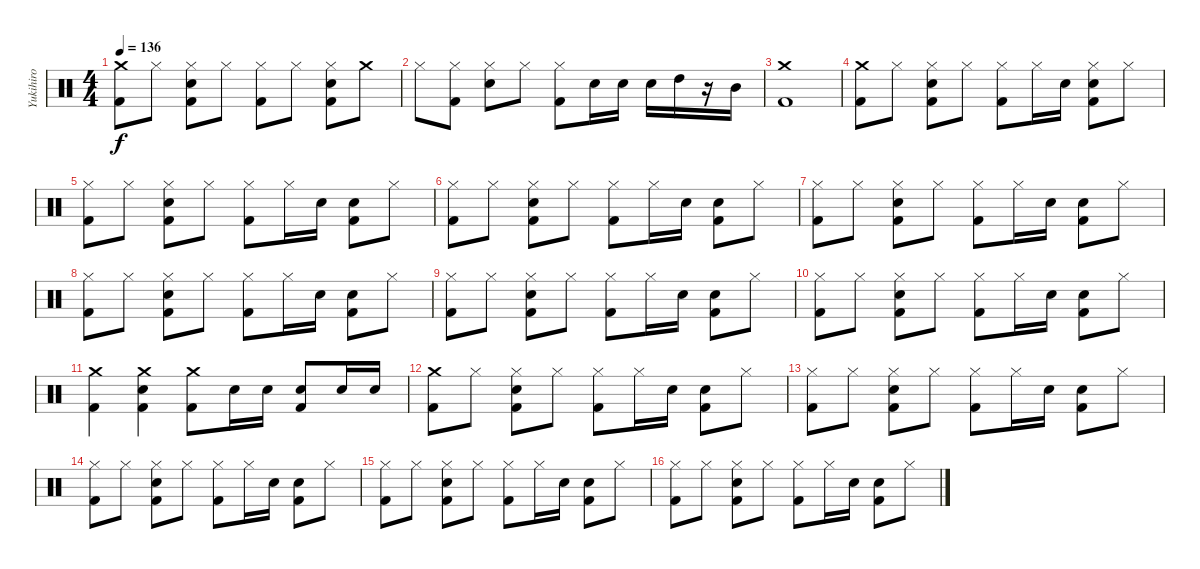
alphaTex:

\track ("Yukihiro" "Yukihiro") {instrument percussion}
\staff {score}
\articulation defaults
\ts (4 4)
\tempo 136
\clef neutral
\ks c
("Crash medium (hit)" "Kick (hit) 2").8{dy f} "Hi-Hat (closed)".8 ("Hi-Hat (closed)" "Snare (hit) 2" "Kick (hit) 2").8 "Hi-Hat (closed)".8 ("Hi-Hat (closed)" "Kick (hit) 2").8 "Hi-Hat (closed)".8 ("Hi-Hat (closed)" "Snare (hit) 2" "Kick (hit) 2").8 "Crash medium (hit)".8 |
"Hi-Hat (closed)".8 ("Hi-Hat (closed)" "Kick (hit) 2").8 ("Hi-Hat (closed)" "Snare (hit) 2").8 "Hi-Hat (closed)".8 ("Hi-Hat (closed)" "Kick (hit) 2").8 "Snare (hit) 2".16 "Snare (hit) 2".16 "Snare (hit) 2".16 "High Tom (hit)".16 r.16 "Mid Tom (hit)".16 |
("Crash medium (hit)" "Kick (hit) 2").1 |
("Crash medium (hit)" "Kick (hit) 2").8 "Hi-Hat (closed)".8 ("Hi-Hat (closed)" "Snare (hit) 2" "Kick (hit) 2").8 "Hi-Hat (closed)".8 ("Hi-Hat (closed)" "Kick (hit) 2").8 "Hi-Hat (closed)".16 "Snare (hit) 2".16 ("Hi-Hat (closed)" "Snare (hit) 2" "Kick (hit) 2").8 "Hi-Hat (closed)".8 |
("Hi-Hat (closed)" "Kick (hit) 2").8 "Hi-Hat (closed)".8 ("Hi-Hat (closed)" "Snare (hit) 2" "Kick (hit) 2").8 "Hi-Hat (closed)".8 ("Hi-Hat (closed)" "Kick (hit) 2").8 "Hi-Hat (closed)".16 "Snare (hit) 2".16 ("Snare (hit) 2" "Kick (hit) 2").8 "Hi-Hat (closed)".8 |
("Hi-Hat (closed)" "Kick (hit) 2").8 "Hi-Hat (closed)".8 ("Hi-Hat (closed)" "Snare (hit) 2" "Kick (hit) 2").8 "Hi-Hat (closed)".8 ("Hi-Hat (closed)" "Kick (hit) 2").8 "Hi-Hat (closed)".16 "Snare (hit) 2".16 ("Snare (hit) 2" "Kick (hit) 2").8 "Hi-Hat (closed)".8 |
("Hi-Hat (closed)" "Kick (hit) 2").8 "Hi-Hat (closed)".8 ("Hi-Hat (closed)" "Snare (hit) 2" "Kick (hit) 2").8 "Hi-Hat (closed)".8 ("Hi-Hat (closed)" "Kick (hit) 2").8 "Hi-Hat (closed)".16 "Snare (hit) 2".16 ("Snare (hit) 2" "Kick (hit) 2").8 "Hi-Hat (closed)".8 |
("Hi-Hat (closed)" "Kick (hit) 2").8 "Hi-Hat (closed)".8 ("Hi-Hat (closed)" "Snare (hit) 2" "Kick (hit) 2").8 "Hi-Hat (closed)".8 ("Hi-Hat (closed)" "Kick (hit) 2").8 "Hi-Hat (closed)".16 "Snare (hit) 2".16 ("Snare (hit) 2" "Kick (hit) 2").8 "Hi-Hat (closed)".8 |
("Hi-Hat (closed)" "Kick (hit) 2").8 "Hi-Hat (closed)".8 ("Hi-Hat (closed)" "Snare (hit) 2" "Kick (hit) 2").8 "Hi-Hat (closed)".8 ("Hi-Hat (closed)" "Kick (hit) 2").8 "Hi-Hat (closed)".16 "Snare (hit) 2".16 ("Snare (hit) 2" "Kick (hit) 2").8 "Hi-Hat (closed)".8 |
("Hi-Hat (closed)" "Kick (hit) 2").8 "Hi-Hat (closed)".8 ("Hi-Hat (closed)" "Snare (hit) 2" "Kick (hit) 2").8 "Hi-Hat (closed)".8 ("Hi-Hat (closed)" "Kick (hit) 2").8 "Hi-Hat (closed)".16 "Snare (hit) 2".16 ("Snare (hit) 2" "Kick (hit) 2").8 "Hi-Hat (closed)".8 |
("Crash medium (hit)" "Kick (hit) 2").4 ("Crash medium (hit)" "Snare (hit) 2" "Kick (hit) 2").4 ("Crash medium (hit)" "Kick (hit) 2").8 "Snare (hit) 2".16 "Snare (hit) 2".16 ("Snare (hit) 2" "Kick (hit) 2").8 "Snare (hit) 2".16 "Snare (hit) 2".16 |
("Crash medium (hit)" "Kick (hit) 2").8 "Hi-Hat (closed)".8 ("Hi-Hat (closed)" "Snare (hit) 2" "Kick (hit) 2").8 "Hi-Hat (closed)".8 ("Hi-Hat (closed)" "Kick (hit) 2").8 "Hi-Hat (closed)".16 "Snare (hit) 2".16 ("Snare (hit) 2" "Kick (hit) 2").8 "Hi-Hat (closed)".8 |
("Hi-Hat (closed)" "Kick (hit) 2").8 "Hi-Hat (closed)".8 ("Hi-Hat (closed)" "Snare (hit) 2" "Kick (hit) 2").8 "Hi-Hat (closed)".8 ("Hi-Hat (closed)" "Kick (hit) 2").8 "Hi-Hat (closed)".16 "Snare (hit) 2".16 ("Snare (hit) 2" "Kick (hit) 2").8 "Hi-Hat (closed)".8 |
("Hi-Hat (closed)" "Kick (hit) 2").8 "Hi-Hat (closed)".8 ("Hi-Hat (closed)" "Snare (hit) 2" "Kick (hit) 2").8 "Hi-Hat (closed)".8 ("Hi-Hat (closed)" "Kick (hit) 2").8 "Hi-Hat (closed)".16 "Snare (hit) 2".16 ("Snare (hit) 2" "Kick (hit) 2").8 "Hi-Hat (closed)".8 |
("Hi-Hat (closed)" "Kick (hit) 2").8 "Hi-Hat (closed)".8 ("Hi-Hat (closed)" "Snare (hit) 2" "Kick (hit) 2").8 "Hi-Hat (closed)".8 ("Hi-Hat (closed)" "Kick (hit) 2").8 "Hi-Hat (closed)".16 "Snare (hit) 2".16 ("Snare (hit) 2" "Kick (hit) 2").8 "Hi-Hat (closed)".8 |
("Hi-Hat (closed)" "Kick (hit) 2").8 "Hi-Hat (closed)".8 ("Hi-Hat (closed)" "Snare (hit) 2" "Kick (hit) 2").8 "Hi-Hat (closed)".8 ("Hi-Hat (closed)" "Kick (hit) 2").8 "Hi-Hat (closed)".16 "Snare (hit) 2".16 ("Snare (hit) 2" "Kick (hit) 2").8 "Hi-Hat (closed)".8
